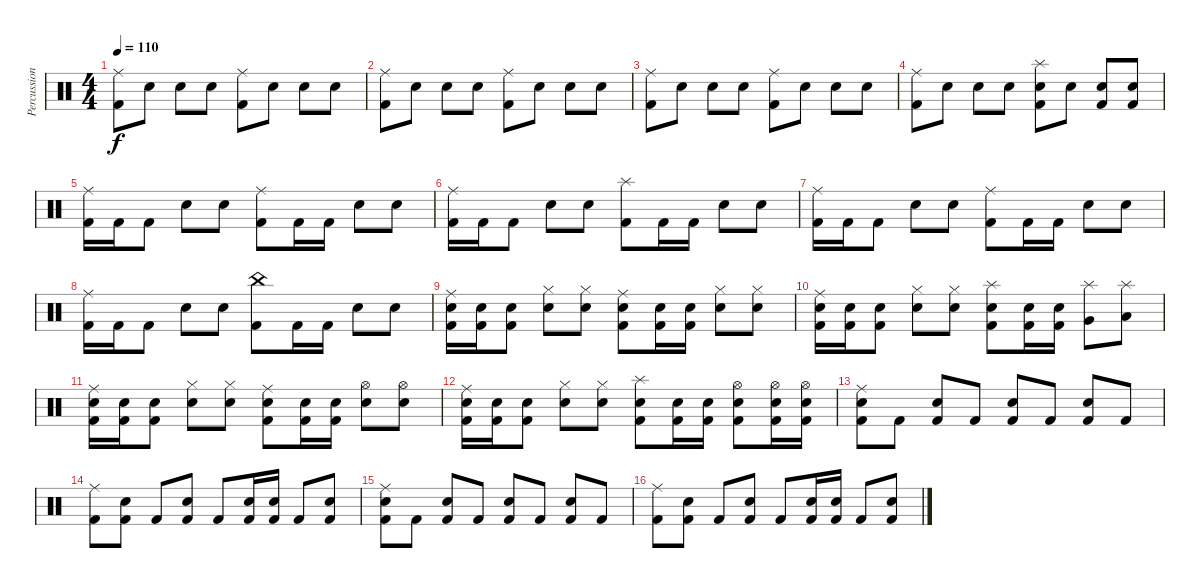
\track ("Percussion" "Percussion") {instrument percussion}
\staff {score}
\articulation defaults
\ts (4 4)
\tempo 110
\clef neutral
\ks c
("Ride (middle)" "Kick (hit) 2").8{dy f} "Electric Snare (hit)".8 "Electric Snare (hit)".8 "Electric Snare (hit)".8 ("Ride (middle)" "Kick (hit) 2").8 "Electric Snare (hit)".8 "Electric Snare (hit)".8 "Electric Snare (hit)".8 |
("Ride (middle)" "Kick (hit) 2").8 "Electric Snare (hit)".8 "Electric Snare (hit)".8 "Electric Snare (hit)".8 ("Ride (middle)" "Kick (hit) 2").8 "Electric Snare (hit)".8 "Electric Snare (hit)".8 "Electric Snare (hit)".8 |
("Ride (middle)" "Kick (hit) 2").8 "Electric Snare (hit)".8 "Electric Snare (hit)".8 "Electric Snare (hit)".8 ("Ride (middle)" "Kick (hit) 2").8 "Electric Snare (hit)".8 "Electric Snare (hit)".8 "Electric Snare (hit)".8 |
("Ride (middle)" "Kick (hit) 2").8 "Electric Snare (hit)".8 "Electric Snare (hit)".8 "Electric Snare (hit)".8 ("Splash (hit)" "Electric Snare (hit)" "Kick (hit) 2").8 "Electric Snare (hit)".8 ("Electric Snare (hit)" "Kick (hit) 2").8 ("Electric Snare (hit)" "Kick (hit) 2").8 |
("Ride (middle)" "Kick (hit) 2").16 "Kick (hit) 2".16 "Kick (hit) 2".8 "Electric Snare (hit)".8 "Electric Snare (hit)".8 ("Ride (middle)" "Kick (hit) 2").8 "Kick (hit) 2".16 "Kick (hit) 2".16 "Electric Snare (hit)".8 "Electric Snare (hit)".8 |
("Ride (middle)" "Kick (hit) 2").16 "Kick (hit) 2".16 "Kick (hit) 2".8 "Electric Snare (hit)".8 "Electric Snare (hit)".8 ("Splash (hit)" "Kick (hit) 2").8 "Kick (hit) 2".16 "Kick (hit) 2".16 "Electric Snare (hit)".8 "Electric Snare (hit)".8 |
("Ride (middle)" "Kick (hit) 2").16 "Kick (hit) 2".16 "Kick (hit) 2".8 "Electric Snare (hit)".8 "Electric Snare (hit)".8 ("Ride (middle)" "Kick (hit) 2").8 "Kick (hit) 2".16 "Kick (hit) 2".16 "Electric Snare (hit)".8 "Electric Snare (hit)".8 |
("Ride (middle)" "Kick (hit) 2").16 "Kick (hit) 2".16 "Kick (hit) 2".8 "Electric Snare (hit)".8 "Electric Snare (hit)".8 ("China (hit)" "Kick (hit) 2").8 "Kick (hit) 2".16 "Kick (hit) 2".16 "Electric Snare (hit)".8 "Electric Snare (hit)".8 |
("Ride (middle)" "Electric Snare (hit)" "Kick (hit) 2").16 ("Electric Snare (hit)" "Kick (hit) 2").16 ("Electric Snare (hit)" "Kick (hit) 2").8 ("Hi-Hat (closed)" "Electric Snare (hit)").8 ("Hi-Hat (closed)" "Electric Snare (hit)").8 ("Ride (middle)" "Electric Snare (hit)" "Kick (hit) 2").8 ("Electric Snare (hit)" "Kick (hit) 2").16 ("Electric Snare (hit)" "Kick (hit) 2").16 ("Hi-Hat (closed)" "Electric Snare (hit)").8 ("Hi-Hat (closed)" "Electric Snare (hit)").8 |
("Ride (middle)" "Electric Snare (hit)" "Kick (hit) 2").16 ("Electric Snare (hit)" "Kick (hit) 2").16 ("Electric Snare (hit)" "Kick (hit) 2").8 ("Hi-Hat (closed)" "Electric Snare (hit)").8 ("Hi-Hat (closed)" "Electric Snare (hit)").8 ("Splash (hit)" "Electric Snare (hit)" "Kick (hit) 2").8 ("Electric Snare (hit)" "Kick (hit) 2").16 ("Electric Snare (hit)" "Kick (hit) 2").16 ("Splash (hit)" "Very Low Tom (hit)").8 ("Splash (hit)" "Low Floor Tom (hit)").8 |
("Ride (middle)" "Electric Snare (hit)" "Kick (hit) 2").16 ("Electric Snare (hit)" "Kick (hit) 2").16 ("Electric Snare (hit)" "Kick (hit) 2").8 ("Hi-Hat (closed)" "Electric Snare (hit)").8 ("Hi-Hat (closed)" "Electric Snare (hit)").8 ("Ride (middle)" "Electric Snare (hit)" "Kick (hit) 2").8 ("Electric Snare (hit)" "Kick (hit) 2").16 ("Electric Snare (hit)" "Kick (hit) 2").16 ("Hi-Hat (open)" "Electric Snare (hit)").8 ("Hi-Hat (open)" "Electric Snare (hit)").8 |
("Ride (middle)" "Electric Snare (hit)" "Kick (hit) 2").16 ("Electric Snare (hit)" "Kick (hit) 2").16 ("Electric Snare (hit)" "Kick (hit) 2").8 ("Hi-Hat (closed)" "Electric Snare (hit)").8 ("Hi-Hat (closed)" "Electric Snare (hit)").8 ("Splash (hit)" "Electric Snare (hit)" "Kick (hit) 2").8 ("Electric Snare (hit)" "Kick (hit) 2").16 ("Electric Snare (hit)" "Kick (hit) 2").16 ("Hi-Hat (open)" "Electric Snare (hit)" "Kick (hit) 2").8 ("Hi-Hat (open)" "Electric Snare (hit)" "Kick (hit) 2").16 ("Hi-Hat (open)" "Electric Snare (hit)" "Kick (hit) 2").16 |
("Ride (middle)" "Electric Snare (hit)" "Kick (hit) 2").8 "Kick (hit) 2".8 ("Electric Snare (hit)" "Kick (hit) 2").8 "Kick (hit) 2".8 ("Electric Snare (hit)" "Kick (hit) 2").8 "Kick (hit) 2".8 ("Electric Snare (hit)" "Kick (hit) 2").8 "Kick (hit) 2".8 |
("Ride (middle)" "Kick (hit) 2").8 ("Electric Snare (hit)" "Kick (hit) 2").8 "Kick (hit) 2".8 ("Electric Snare (hit)" "Kick (hit) 2").8 "Kick (hit) 2".8 ("Electric Snare (hit)" "Kick (hit) 2").16 ("Electric Snare (hit)" "Kick (hit) 2").16 "Kick (hit) 2".8 ("Electric Snare (hit)" "Kick (hit) 2").8 |
("Ride (middle)" "Electric Snare (hit)" "Kick (hit) 2").8 "Kick (hit) 2".8 ("Electric Snare (hit)" "Kick (hit) 2").8 "Kick (hit) 2".8 ("Electric Snare (hit)" "Kick (hit) 2").8 "Kick (hit) 2".8 ("Electric Snare (hit)" "Kick (hit) 2").8 "Kick (hit) 2".8 |
("Ride (middle)" "Kick (hit) 2").8 ("Electric Snare (hit)" "Kick (hit) 2").8 "Kick (hit) 2".8 ("Electric Snare (hit)" "Kick (hit) 2").8 "Kick (hit) 2".8 ("Electric Snare (hit)" "Kick (hit) 2").16 ("Electric Snare (hit)" "Kick (hit) 2").16 "Kick (hit) 2".8 ("Electric Snare (hit)" "Kick (hit) 2").8
